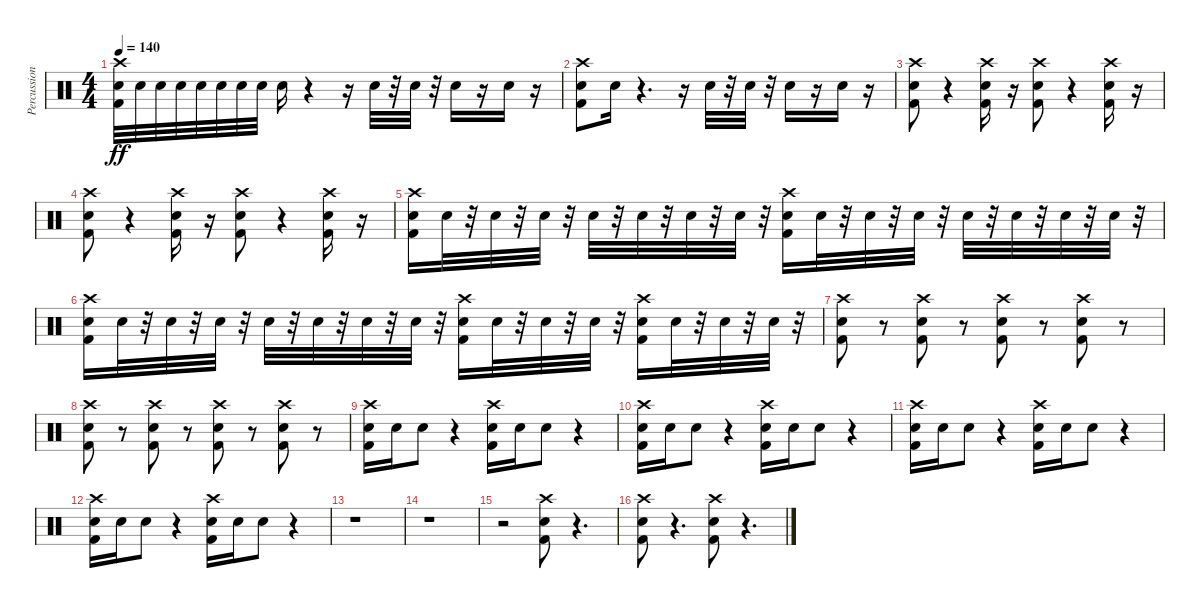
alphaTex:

\track ("Percussion" "Percussion") {instrument percussion}
\staff {score}
\articulation defaults
\ts (4 4)
\tempo 140
\clef neutral
\ks c
("Crash high (hit)" "Kick (hit) 2" "Snare (hit) 2").32{dy ff} "Snare (hit) 2".32 "Snare (hit) 2".32 "Snare (hit) 2".32 "Snare (hit) 2".32 "Snare (hit) 2".32 "Snare (hit) 2".32 "Snare (hit) 2".32 "Snare (hit) 2".16 r.4 r.16 "Snare (hit) 2".32 r.32 "Snare (hit) 2".32 r.32 "Snare (hit) 2".16 r.16 "Snare (hit) 2".16 r.16 |
("Kick (hit) 2" "Crash high (hit)" "Snare (hit) 2").8 "Snare (hit) 2".16 r.4{d} r.16 "Snare (hit) 2".32 r.32 "Snare (hit) 2".32 r.32 "Snare (hit) 2".16 r.16 "Snare (hit) 2".16 r.16 |
("Crash high (hit)" "Kick (hit) 2" "Snare (hit) 2").8 r.4 ("Kick (hit) 2" "Crash high (hit)" "Snare (hit) 2").16 r.16 ("Kick (hit) 2" "Crash high (hit)" "Snare (hit) 2").8 r.4 ("Crash high (hit)" "Kick (hit) 2" "Snare (hit) 2").16 r.16 |
("Crash high (hit)" "Kick (hit) 2" "Snare (hit) 2").8 r.4 ("Kick (hit) 2" "Crash high (hit)" "Snare (hit) 2").16 r.16 ("Kick (hit) 2" "Crash high (hit)" "Snare (hit) 2").8 r.4 ("Crash high (hit)" "Kick (hit) 2" "Snare (hit) 2").16 r.16 |
("Crash high (hit)" "Kick (hit) 2" "Snare (hit) 2").16 "Snare (hit) 2".32 r.32 "Snare (hit) 2".32 r.32 "Snare (hit) 2".32 r.32 "Snare (hit) 2".32 r.32 "Snare (hit) 2".32 r.32 "Snare (hit) 2".32 r.32 "Snare (hit) 2".32 r.32 ("Crash high (hit)" "Kick (hit) 2" "Snare (hit) 2").16 "Snare (hit) 2".32 r.32 "Snare (hit) 2".32 r.32 "Snare (hit) 2".32 r.32 "Snare (hit) 2".32 r.32 "Snare (hit) 2".32 r.32 "Snare (hit) 2".32 r.32 "Snare (hit) 2".32 r.32 |
("Kick (hit) 2" "Crash high (hit)" "Snare (hit) 2").16 "Snare (hit) 2".32 r.32 "Snare (hit) 2".32 r.32 "Snare (hit) 2".32 r.32 "Snare (hit) 2".32 r.32 "Snare (hit) 2".32 r.32 "Snare (hit) 2".32 r.32 "Snare (hit) 2".32 r.32 ("Crash high (hit)" "Kick (hit) 2" "Snare (hit) 2").16 "Snare (hit) 2".32 r.32 "Snare (hit) 2".32 r.32 "Snare (hit) 2".32 r.32 ("Crash high (hit)" "Kick (hit) 2" "Snare (hit) 2").16 "Snare (hit) 2".32 r.32 "Snare (hit) 2".32 r.32 "Snare (hit) 2".32 r.32 |
("Snare (hit) 2" "Kick (hit) 2" "Crash high (hit)").8 r.8 ("Snare (hit) 2" "Kick (hit) 2" "Crash high (hit)").8 r.8 ("Snare (hit) 2" "Kick (hit) 2" "Crash high (hit)").8 r.8 ("Snare (hit) 2" "Kick (hit) 2" "Crash high (hit)").8 r.8 |
("Snare (hit) 2" "Kick (hit) 2" "Crash high (hit)").8 r.8 ("Snare (hit) 2" "Kick (hit) 2" "Crash high (hit)").8 r.8 ("Snare (hit) 2" "Kick (hit) 2" "Crash high (hit)").8 r.8 ("Snare (hit) 2" "Kick (hit) 2" "Crash high (hit)").8 r.8 |
("Snare (hit) 2" "Kick (hit) 2" "Crash high (hit)").16 "Snare (hit) 2".16 "Snare (hit) 2".8 r.4 ("Snare (hit) 2" "Kick (hit) 2" "Crash high (hit)").16 "Snare (hit) 2".16 "Snare (hit) 2".8 r.4 |
("Snare (hit) 2" "Kick (hit) 2" "Crash high (hit)").16 "Snare (hit) 2".16 "Snare (hit) 2".8 r.4 ("Snare (hit) 2" "Kick (hit) 2" "Crash high (hit)").16 "Snare (hit) 2".16 "Snare (hit) 2".8 r.4 |
("Snare (hit) 2" "Kick (hit) 2" "Crash high (hit)").16 "Snare (hit) 2".16 "Snare (hit) 2".8 r.4 ("Snare (hit) 2" "Kick (hit) 2" "Crash high (hit)").16 "Snare (hit) 2".16 "Snare (hit) 2".8 r.4 |
("Snare (hit) 2" "Kick (hit) 2" "Crash high (hit)").16 "Snare (hit) 2".16 "Snare (hit) 2".8 r.4 ("Snare (hit) 2" "Kick (hit) 2" "Crash high (hit)").16 "Snare (hit) 2".16 "Snare (hit) 2".8 r.4 |
r.1 |
r.1 |
r.2 ("Snare (hit) 2" "Kick (hit) 2" "Crash high (hit)").8 r.4{d} |
("Snare (hit) 2" "Kick (hit) 2" "Crash high (hit)").8 r.4{d} ("Snare (hit) 2" "Kick (hit) 2" "Crash high (hit)").8 r.4{d}
